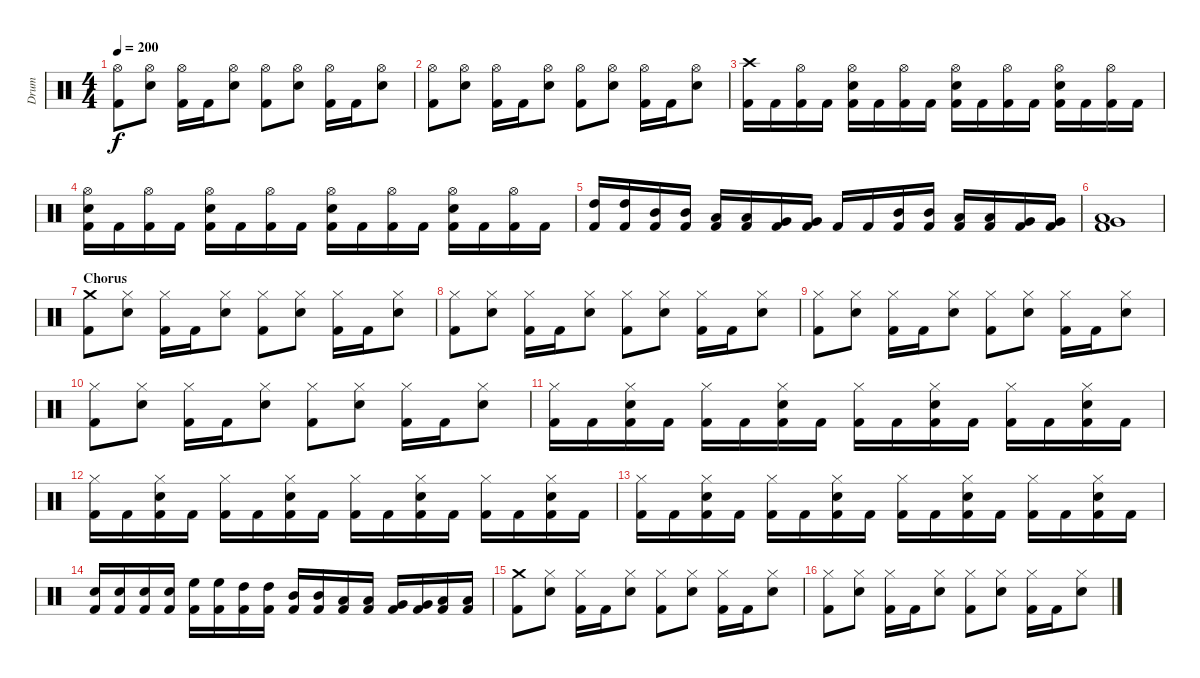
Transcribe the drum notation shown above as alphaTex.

\track ("Drum" "Drum") {instrument percussion}
\staff {score}
\articulation defaults
\ts (4 4)
\tempo 200
\clef neutral
\ks c
("Kick (hit) 2" "Hi-Hat (open)").8{dy f} ("Snare (hit) 2" "Hi-Hat (open)").8 ("Kick (hit) 2" "Hi-Hat (open)").16 "Kick (hit) 2".16 ("Snare (hit) 2" "Hi-Hat (open)").8 ("Kick (hit) 2" "Hi-Hat (open)").8 ("Snare (hit) 2" "Hi-Hat (open)").8 ("Kick (hit) 2" "Hi-Hat (open)").16 "Kick (hit) 2".16 ("Snare (hit) 2" "Hi-Hat (open)").8 |
("Kick (hit) 2" "Hi-Hat (open)").8 ("Snare (hit) 2" "Hi-Hat (open)").8 ("Kick (hit) 2" "Hi-Hat (open)").16 "Kick (hit) 2".16 ("Snare (hit) 2" "Hi-Hat (open)").8 ("Kick (hit) 2" "Hi-Hat (open)").8 ("Snare (hit) 2" "Hi-Hat (open)").8 ("Kick (hit) 2" "Hi-Hat (open)").16 "Kick (hit) 2".16 ("Snare (hit) 2" "Hi-Hat (open)").8 |
("Kick (hit) 2" "Crash high (hit)").16 "Kick (hit) 2".16 ("Kick (hit) 2" "Hi-Hat (open)").16 "Kick (hit) 2".16 ("Kick (hit) 2" "Snare (hit) 2" "Hi-Hat (open)").16 "Kick (hit) 2".16 ("Kick (hit) 2" "Hi-Hat (open)").16 "Kick (hit) 2".16 ("Kick (hit) 2" "Snare (hit) 2" "Hi-Hat (open)").16 "Kick (hit) 2".16 ("Kick (hit) 2" "Hi-Hat (open)").16 "Kick (hit) 2".16 ("Kick (hit) 2" "Snare (hit) 2" "Hi-Hat (open)").16 "Kick (hit) 2".16 ("Kick (hit) 2" "Hi-Hat (open)").16 "Kick (hit) 2".16 |
("Kick (hit) 2" "Snare (hit) 2" "Hi-Hat (open)").16 "Kick (hit) 2".16 ("Kick (hit) 2" "Hi-Hat (open)").16 "Kick (hit) 2".16 ("Kick (hit) 2" "Snare (hit) 2" "Hi-Hat (open)").16 "Kick (hit) 2".16 ("Kick (hit) 2" "Hi-Hat (open)").16 "Kick (hit) 2".16 ("Kick (hit) 2" "Snare (hit) 2" "Hi-Hat (open)").16 "Kick (hit) 2".16 ("Kick (hit) 2" "Hi-Hat (open)").16 "Kick (hit) 2".16 ("Kick (hit) 2" "Snare (hit) 2" "Hi-Hat (open)").16 "Kick (hit) 2".16 ("Kick (hit) 2" "Hi-Hat (open)").16 "Kick (hit) 2".16 |
("Kick (hit) 2" "High Tom (hit)").16 ("Kick (hit) 2" "High Tom (hit)").16 ("Kick (hit) 2" "Mid Tom (hit)").16 ("Kick (hit) 2" "Mid Tom (hit)").16 ("Kick (hit) 2" "Low Tom (hit)").16 ("Kick (hit) 2" "Low Tom (hit)").16 ("Kick (hit) 2" "Very Low Tom (hit)").16 ("Kick (hit) 2" "Very Low Tom (hit)").16 "Kick (hit) 2".16 "Kick (hit) 2".16 ("Kick (hit) 2" "Mid Tom (hit)").16 ("Kick (hit) 2" "Mid Tom (hit)").16 ("Kick (hit) 2" "Low Tom (hit)").16 ("Kick (hit) 2" "Low Tom (hit)").16 ("Kick (hit) 2" "Very Low Tom (hit)").16 ("Kick (hit) 2" "Very Low Tom (hit)").16 |
("Kick (hit) 2" "Very Low Tom (hit)" "Low Floor Tom (hit)").1 |
\section ("" "Chorus")
("Kick (hit) 2" "Crash medium (hit)").8 ("Snare (hit) 2" "Hi-Hat (closed)").8 ("Kick (hit) 2" "Hi-Hat (closed)").16 "Kick (hit) 2".16 ("Snare (hit) 2" "Hi-Hat (closed)").8 ("Kick (hit) 2" "Hi-Hat (closed)").8 ("Snare (hit) 2" "Hi-Hat (closed)").8 ("Kick (hit) 2" "Hi-Hat (closed)").16 "Kick (hit) 2".16 ("Snare (hit) 2" "Hi-Hat (closed)").8 |
("Kick (hit) 2" "Hi-Hat (closed)").8 ("Snare (hit) 2" "Hi-Hat (closed)").8 ("Kick (hit) 2" "Hi-Hat (closed)").16 "Kick (hit) 2".16 ("Snare (hit) 2" "Hi-Hat (closed)").8 ("Kick (hit) 2" "Hi-Hat (closed)").8 ("Snare (hit) 2" "Hi-Hat (closed)").8 ("Kick (hit) 2" "Hi-Hat (closed)").16 "Kick (hit) 2".16 ("Snare (hit) 2" "Hi-Hat (closed)").8 |
("Kick (hit) 2" "Hi-Hat (closed)").8 ("Snare (hit) 2" "Hi-Hat (closed)").8 ("Kick (hit) 2" "Hi-Hat (closed)").16 "Kick (hit) 2".16 ("Snare (hit) 2" "Hi-Hat (closed)").8 ("Kick (hit) 2" "Hi-Hat (closed)").8 ("Snare (hit) 2" "Hi-Hat (closed)").8 ("Kick (hit) 2" "Hi-Hat (closed)").16 "Kick (hit) 2".16 ("Snare (hit) 2" "Hi-Hat (closed)").8 |
("Kick (hit) 2" "Hi-Hat (closed)").8 ("Snare (hit) 2" "Hi-Hat (closed)").8 ("Kick (hit) 2" "Hi-Hat (closed)").16 "Kick (hit) 2".16 ("Snare (hit) 2" "Hi-Hat (closed)").8 ("Kick (hit) 2" "Hi-Hat (closed)").8 ("Snare (hit) 2" "Hi-Hat (closed)").8 ("Kick (hit) 2" "Hi-Hat (closed)").16 "Kick (hit) 2".16 ("Snare (hit) 2" "Hi-Hat (closed)").8 |
("Kick (hit) 2" "Hi-Hat (closed)").16 "Kick (hit) 2".16 ("Kick (hit) 2" "Snare (hit) 2" "Hi-Hat (closed)").16 "Kick (hit) 2".16 ("Kick (hit) 2" "Hi-Hat (closed)").16 "Kick (hit) 2".16 ("Kick (hit) 2" "Snare (hit) 2" "Hi-Hat (closed)").16 "Kick (hit) 2".16 ("Kick (hit) 2" "Hi-Hat (closed)").16 "Kick (hit) 2".16 ("Kick (hit) 2" "Snare (hit) 2" "Hi-Hat (closed)").16 "Kick (hit) 2".16 ("Kick (hit) 2" "Hi-Hat (closed)").16 "Kick (hit) 2".16 ("Kick (hit) 2" "Snare (hit) 2" "Hi-Hat (closed)").16 "Kick (hit) 2".16 |
("Kick (hit) 2" "Hi-Hat (closed)").16 "Kick (hit) 2".16 ("Kick (hit) 2" "Snare (hit) 2" "Hi-Hat (closed)").16 "Kick (hit) 2".16 ("Kick (hit) 2" "Hi-Hat (closed)").16 "Kick (hit) 2".16 ("Kick (hit) 2" "Snare (hit) 2" "Hi-Hat (closed)").16 "Kick (hit) 2".16 ("Kick (hit) 2" "Hi-Hat (closed)").16 "Kick (hit) 2".16 ("Kick (hit) 2" "Snare (hit) 2" "Hi-Hat (closed)").16 "Kick (hit) 2".16 ("Kick (hit) 2" "Hi-Hat (closed)").16 "Kick (hit) 2".16 ("Kick (hit) 2" "Snare (hit) 2" "Hi-Hat (closed)").16 "Kick (hit) 2".16 |
("Kick (hit) 2" "Hi-Hat (closed)").16 "Kick (hit) 2".16 ("Kick (hit) 2" "Snare (hit) 2" "Hi-Hat (closed)").16 "Kick (hit) 2".16 ("Kick (hit) 2" "Hi-Hat (closed)").16 "Kick (hit) 2".16 ("Kick (hit) 2" "Snare (hit) 2" "Hi-Hat (closed)").16 "Kick (hit) 2".16 ("Kick (hit) 2" "Hi-Hat (closed)").16 "Kick (hit) 2".16 ("Kick (hit) 2" "Snare (hit) 2" "Hi-Hat (closed)").16 "Kick (hit) 2".16 ("Kick (hit) 2" "Hi-Hat (closed)").16 "Kick (hit) 2".16 ("Kick (hit) 2" "Snare (hit) 2" "Hi-Hat (closed)").16 "Kick (hit) 2".16 |
("Kick (hit) 2" "Snare (hit) 2").16 ("Kick (hit) 2" "Snare (hit) 2").16 ("Kick (hit) 2" "Snare (hit) 2").16 ("Kick (hit) 2" "Snare (hit) 2").16 ("Kick (hit) 2" "High Floor Tom (hit)").16 ("Kick (hit) 2" "High Floor Tom (hit)").16 ("Kick (hit) 2" "High Tom (hit)").16 ("Kick (hit) 2" "High Tom (hit)").16 ("Kick (hit) 2" "Mid Tom (hit)").16 ("Kick (hit) 2" "Mid Tom (hit)").16 ("Kick (hit) 2" "Low Tom (hit)").16 ("Kick (hit) 2" "Low Tom (hit)").16 ("Kick (hit) 2" "Very Low Tom (hit)").16 ("Kick (hit) 2" "Very Low Tom (hit)").16 ("Kick (hit) 2" "Low Floor Tom (hit)").16 ("Kick (hit) 2" "Low Floor Tom (hit)").16 |
("Kick (hit) 2" "Crash medium (hit)").8 ("Snare (hit) 2" "Hi-Hat (closed)").8 ("Kick (hit) 2" "Hi-Hat (closed)").16 "Kick (hit) 2".16 ("Snare (hit) 2" "Hi-Hat (closed)").8 ("Kick (hit) 2" "Hi-Hat (closed)").8 ("Snare (hit) 2" "Hi-Hat (closed)").8 ("Kick (hit) 2" "Hi-Hat (closed)").16 "Kick (hit) 2".16 ("Snare (hit) 2" "Hi-Hat (closed)").8 |
("Kick (hit) 2" "Hi-Hat (closed)").8 ("Snare (hit) 2" "Hi-Hat (closed)").8 ("Kick (hit) 2" "Hi-Hat (closed)").16 "Kick (hit) 2".16 ("Snare (hit) 2" "Hi-Hat (closed)").8 ("Kick (hit) 2" "Hi-Hat (closed)").8 ("Snare (hit) 2" "Hi-Hat (closed)").8 ("Kick (hit) 2" "Hi-Hat (closed)").16 "Kick (hit) 2".16 ("Snare (hit) 2" "Hi-Hat (closed)").8
